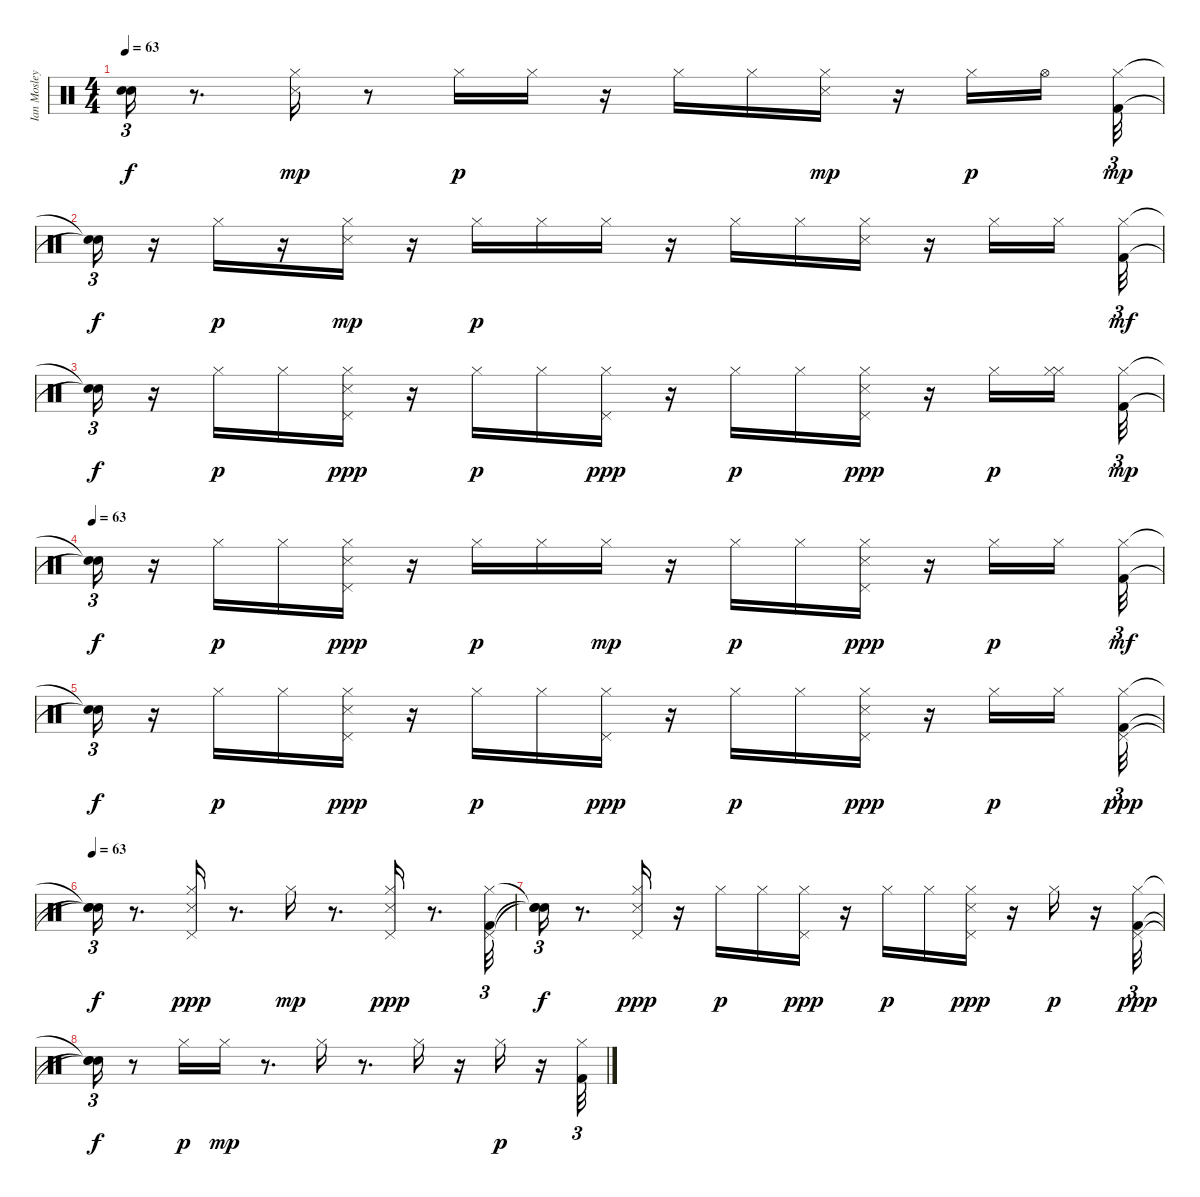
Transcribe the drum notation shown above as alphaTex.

\track ("Ian Mosley" "Ian Mosley") {instrument percussion}
\staff {score}
\articulation defaults
\ts (4 4)
\tempo 63
\clef neutral
\ks c
("Snare (hit)"{t} "Snare (hit)"{t}).16{tu (3 2) dy f} r.8{d} ("Snare (side stick) 3" "Hi-Hat (closed)").16{dy mp} r.8 "Hi-Hat (closed)".16{dy p} "Hi-Hat (closed)".16 r.16 "Hi-Hat (closed)".16 "Hi-Hat (closed)".16 ("Snare (side stick) 3" "Hi-Hat (closed)").16{dy mp} r.16 "Hi-Hat (closed)".16{dy p} "Hi-Hat (open)".16{beam splitsecondary} ("Kick (hit) 2" "Hi-Hat (closed)").32{tu (3 2) dy mp} |
("Snare (hit)"{t} "Snare (hit)"{t}).16{tu (3 2) dy f} r.16 "Hi-Hat (closed)".16{dy p} r.16 ("Snare (side stick) 3" "Hi-Hat (closed)").16{dy mp} r.16 "Hi-Hat (closed)".16{dy p} "Hi-Hat (closed)".16 "Hi-Hat (closed)".16 r.16 "Hi-Hat (closed)".16 "Hi-Hat (closed)".16 ("Snare (side stick) 3" "Hi-Hat (closed)").16 r.16 "Hi-Hat (closed)".16 "Hi-Hat (closed)".16{beam splitsecondary} ("Kick (hit) 2" "Hi-Hat (closed)").32{tu (3 2) dy mf} |
("Snare (hit)"{t} "Snare (hit)"{t}).16{tu (3 2) dy f} r.16 "Hi-Hat (closed)".16{dy p} "Hi-Hat (closed)".16 ("Snare (side stick) 3" "Hi-Hat (closed)" "Pedal Hi-Hat (hit)").16{dy ppp} r.16 "Hi-Hat (closed)".16{dy p} "Hi-Hat (closed)".16 ("Hi-Hat (closed)" "Pedal Hi-Hat (hit)").16{dy ppp} r.16 "Hi-Hat (closed)".16{dy p} "Hi-Hat (closed)".16 ("Snare (side stick) 3" "Hi-Hat (closed)" "Pedal Hi-Hat (hit)").16{dy ppp} r.16 "Hi-Hat (closed)".16{dy p} ("Hi-Hat (closed)" "Hi-Hat (closed)").16{beam splitsecondary} ("Kick (hit) 2" "Hi-Hat (closed)").32{tu (3 2) dy mp} |
\tempo 63
("Snare (hit)"{t} "Snare (hit)"{t}).16{tu (3 2) dy f} r.16 "Hi-Hat (closed)".16{dy p} "Hi-Hat (closed)".16 ("Snare (side stick) 3" "Hi-Hat (closed)" "Pedal Hi-Hat (hit)").16{dy ppp} r.16 "Hi-Hat (closed)".16{dy p} "Hi-Hat (closed)".16 "Hi-Hat (closed)".16{dy mp} r.16 "Hi-Hat (closed)".16{dy p} "Hi-Hat (closed)".16 ("Snare (side stick) 3" "Hi-Hat (closed)" "Pedal Hi-Hat (hit)").16{dy ppp} r.16 "Hi-Hat (closed)".16{dy p} "Hi-Hat (closed)".16{beam splitsecondary} ("Kick (hit) 2" "Hi-Hat (closed)").32{tu (3 2) dy mf} |
("Snare (hit)"{t} "Snare (hit)"{t}).16{tu (3 2) dy f} r.16 "Hi-Hat (closed)".16{dy p} "Hi-Hat (closed)".16 ("Hi-Hat (closed)" "Snare (side stick) 3" "Pedal Hi-Hat (hit)").16{dy ppp} r.16 "Hi-Hat (closed)".16{dy p} "Hi-Hat (closed)".16 ("Hi-Hat (closed)" "Pedal Hi-Hat (hit)").16{dy ppp} r.16 "Hi-Hat (closed)".16{dy p} "Hi-Hat (closed)".16 ("Hi-Hat (closed)" "Snare (side stick) 3" "Pedal Hi-Hat (hit)").16{dy ppp} r.16 "Hi-Hat (closed)".16{dy p} "Hi-Hat (closed)".16{beam splitsecondary} ("Kick (hit) 2" "Hi-Hat (closed)" "Pedal Hi-Hat (hit)").32{tu (3 2) dy ppp} |
\tempo 63
("Snare (hit)"{t} "Snare (hit)"{t} "Snare (hit)"{t}).16{tu (3 2) dy f} r.8{d} ("Hi-Hat (closed)" "Snare (side stick) 3" "Pedal Hi-Hat (hit)").16{dy ppp} r.8{d} "Hi-Hat (closed)".16{dy mp} r.8{d} ("Snare (side stick) 3" "Hi-Hat (closed)" "Pedal Hi-Hat (hit)").16{dy ppp} r.8{d} ("Kick (hit) 2" "Hi-Hat (closed)" "Pedal Hi-Hat (hit)").32{tu (3 2)} |
("Snare (hit)"{t} "Snare (hit)"{t} "Snare (hit)"{t}).16{tu (3 2) dy f} r.8{d} ("Hi-Hat (closed)" "Snare (side stick) 3" "Pedal Hi-Hat (hit)").16{dy ppp} r.16 "Hi-Hat (closed)".16{dy p} "Hi-Hat (closed)".16 ("Hi-Hat (closed)" "Pedal Hi-Hat (hit)").16{dy ppp} r.16 "Hi-Hat (closed)".16{dy p} "Hi-Hat (closed)".16 ("Hi-Hat (closed)" "Snare (side stick) 3" "Pedal Hi-Hat (hit)").16{dy ppp} r.16 "Hi-Hat (closed)".16{dy p} r.16 ("Kick (hit) 2" "Hi-Hat (closed)" "Pedal Hi-Hat (hit)").32{tu (3 2) dy ppp} |
("Snare (hit)"{t} "Snare (hit)"{t} "Snare (hit)"{t}).16{tu (3 2) dy f} r.8 "Hi-Hat (closed)".16{dy p} "Hi-Hat (closed)".16{dy mp} r.8{d} "Hi-Hat (closed)".16 r.8{d} "Hi-Hat (closed)".16 r.16 "Hi-Hat (closed)".16{dy p} r.16 ("Kick (hit) 2" "Hi-Hat (closed)").32{tu (3 2)}
